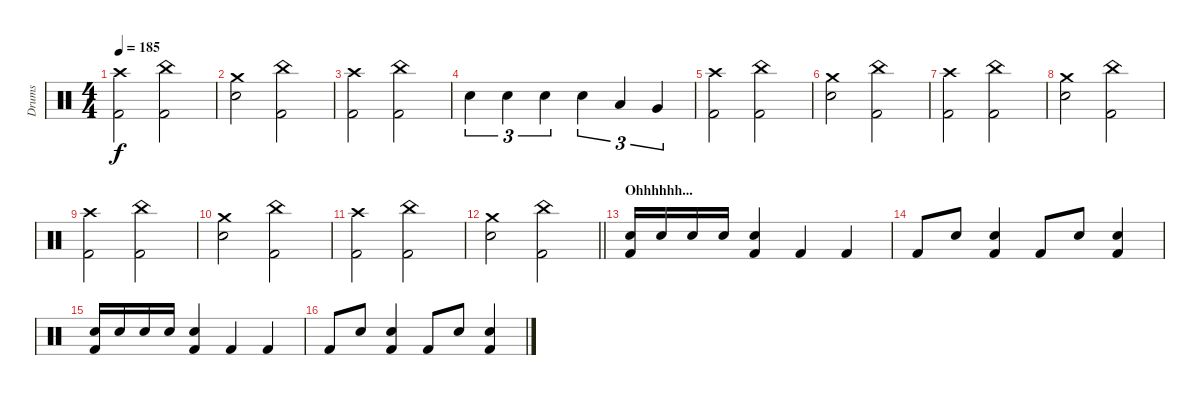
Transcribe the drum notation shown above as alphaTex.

\track ("Drums" "Drums") {instrument percussion}
\staff {score}
\articulation defaults
\ts (4 4)
\tempo 185
\clef neutral
\ks c
("Crash high (hit)" "Kick (hit) 2").2{dy f} ("China (hit)" "Kick (hit) 2").2 |
("Crash medium (hit)" "Electric Snare (hit)").2 ("China (hit)" "Kick (hit) 2").2 |
("Crash high (hit)" "Kick (hit) 2").2 ("China (hit)" "Kick (hit) 2").2 |
"Electric Snare (hit)".4{tu (3 2)} "Electric Snare (hit)".4{tu (3 2)} "Electric Snare (hit)".4{tu (3 2)} "Electric Snare (hit)".4{tu (3 2)} "Low Tom (hit)".4{tu (3 2)} "Very Low Tom (hit)".4{tu (3 2)} |
("Crash high (hit)" "Kick (hit) 2").2 ("China (hit)" "Kick (hit) 2").2 |
("Crash medium (hit)" "Electric Snare (hit)").2 ("China (hit)" "Kick (hit) 2").2 |
("Crash high (hit)" "Kick (hit) 2").2 ("China (hit)" "Kick (hit) 2").2 |
("Crash medium (hit)" "Electric Snare (hit)").2 ("China (hit)" "Kick (hit) 2").2 |
("Crash high (hit)" "Kick (hit) 2").2 ("China (hit)" "Kick (hit) 2").2 |
("Crash medium (hit)" "Electric Snare (hit)").2 ("China (hit)" "Kick (hit) 2").2 |
("Crash high (hit)" "Kick (hit) 2").2 ("China (hit)" "Kick (hit) 2").2 |
\barLineRight lightlight
("Crash medium (hit)" "Electric Snare (hit)").2 ("China (hit)" "Kick (hit) 2").2 |
\section ("" "Ohhhhhh...")
("Electric Snare (hit)" "Kick (hit) 2").16 "Electric Snare (hit)".16 "Electric Snare (hit)".16 "Electric Snare (hit)".16 ("Electric Snare (hit)" "Kick (hit) 2").4 "Kick (hit) 2".4 "Kick (hit) 2".4 |
"Kick (hit) 2".8 "Electric Snare (hit)".8 ("Electric Snare (hit)" "Kick (hit) 2").4 "Kick (hit) 2".8 "Electric Snare (hit)".8 ("Electric Snare (hit)" "Kick (hit) 2").4 |
("Electric Snare (hit)" "Kick (hit) 2").16 "Electric Snare (hit)".16 "Electric Snare (hit)".16 "Electric Snare (hit)".16 ("Electric Snare (hit)" "Kick (hit) 2").4 "Kick (hit) 2".4 "Kick (hit) 2".4 |
"Kick (hit) 2".8 "Electric Snare (hit)".8 ("Electric Snare (hit)" "Kick (hit) 2").4 "Kick (hit) 2".8 "Electric Snare (hit)".8 ("Electric Snare (hit)" "Kick (hit) 2").4
